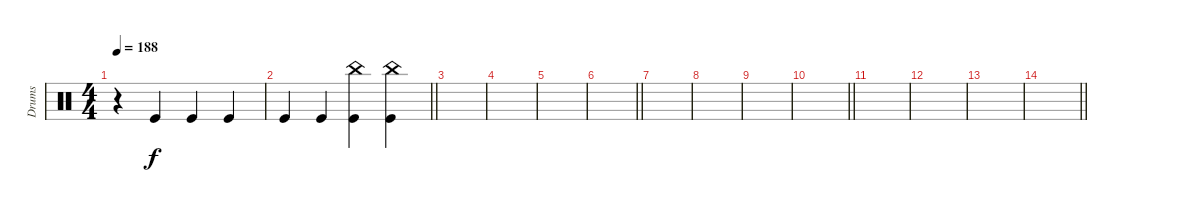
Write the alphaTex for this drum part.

\track ("Drums" "Drums") {instrument percussion}
\staff
\articulation defaults
\ts (4 4)
\tempo 188
\clef neutral
\ks c
r.4{dy f} "Kick (hit)".4 "Kick (hit)".4 "Kick (hit)".4 |
\barLineRight lightlight "Kick (hit)".4 "Kick (hit)".4
("China (hit)" "Kick (hit)").4 ("China (hit)" "Kick (hit)").4 |
\section ("" "")
|
|
|
\barLineRight lightlight
|
|
|
|
\barLineRight lightlight
|
|
|
|
\barLineRight lightlight
